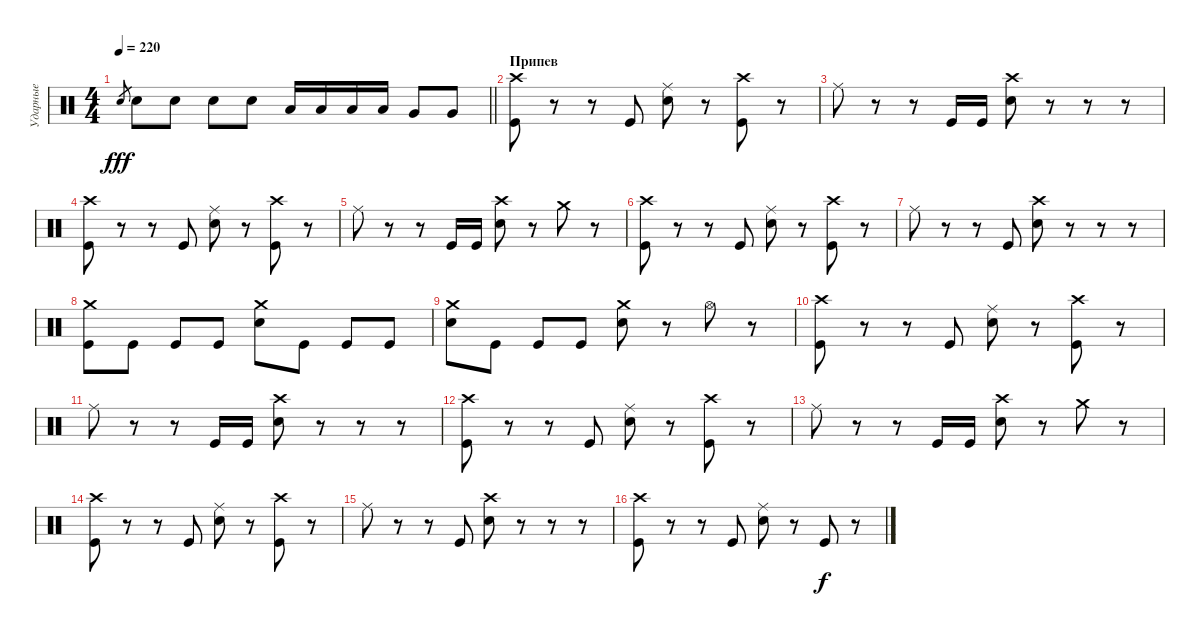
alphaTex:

\track ("Ударные" "Ударные") {instrument percussion}
\staff {score}
\articulation defaults
\ts (4 4)
\section ("" "")
\tempo 220
\clef neutral
\barLineRight lightlight
\ks c "Snare (hit) 2".8{gr dy fff} "Snare (hit) 2".8 "Snare (hit) 2".8 "Snare (hit) 2".8 "Snare (hit) 2".8 "Low Floor Tom (hit)".16 "Low Floor Tom (hit)".16 "Low Floor Tom (hit)".16 "Low Floor Tom (hit)".16 "Very Low Tom (hit)".8 "Very Low Tom (hit)".8
|
\section ("" "Припев")
("Crash high (hit)" "Kick (hit)").8 r.8 r.8 "Kick (hit)".8 ("Ride (middle)" "Snare (hit) 2").8 r.8 ("Crash high (hit)" "Kick (hit)").8 r.8 |
"Ride (middle)".8 r.8 r.8 "Kick (hit)".16 "Kick (hit)".16 ("Crash high (hit)" "Snare (hit) 2").8 r.8 r.8 r.8 |
("Crash high (hit)" "Kick (hit)").8 r.8 r.8 "Kick (hit)".8 ("Ride (middle)" "Snare (hit) 2").8 r.8 ("Crash high (hit)" "Kick (hit)").8 r.8 |
"Ride (middle)".8 r.8 r.8 "Kick (hit)".16 "Kick (hit)".16 ("Crash high (hit)" "Snare (hit) 2").8 r.8 "Crash medium (hit)".8 r.8 |
("Crash high (hit)" "Kick (hit)").8 r.8 r.8 "Kick (hit)".8 ("Ride (middle)" "Snare (hit) 2").8 r.8 ("Crash high (hit)" "Kick (hit)").8 r.8 |
"Ride (middle)".8 r.8 r.8 "Kick (hit)".8 ("Crash high (hit)" "Snare (hit) 2").8 r.8 r.8 r.8 |
("Crash medium (hit)" "Kick (hit)").8 "Kick (hit)".8 "Kick (hit)".8 "Kick (hit)".8 ("Crash medium (hit)" "Snare (hit) 2").8 "Kick (hit)".8 "Kick (hit)".8 "Kick (hit)".8 |
("Crash medium (hit)" "Snare (hit) 2").8 "Kick (hit)".8 "Kick (hit)".8 "Kick (hit)".8 ("Crash medium (hit)" "Snare (hit) 2").8 r.8 "Hi-Hat (open)".8 r.8 |
("Crash high (hit)" "Kick (hit)").8 r.8 r.8 "Kick (hit)".8 ("Ride (middle)" "Snare (hit) 2").8 r.8 ("Crash high (hit)" "Kick (hit)").8 r.8 |
"Ride (middle)".8 r.8 r.8 "Kick (hit)".16 "Kick (hit)".16 ("Crash high (hit)" "Snare (hit) 2").8 r.8 r.8 r.8 |
("Crash high (hit)" "Kick (hit)").8 r.8 r.8 "Kick (hit)".8 ("Ride (middle)" "Snare (hit) 2").8 r.8 ("Crash high (hit)" "Kick (hit)").8 r.8 |
"Ride (middle)".8 r.8 r.8 "Kick (hit)".16 "Kick (hit)".16 ("Crash high (hit)" "Snare (hit) 2").8 r.8 "Crash medium (hit)".8 r.8 |
("Crash high (hit)" "Kick (hit)").8 r.8 r.8 "Kick (hit)".8 ("Ride (middle)" "Snare (hit) 2").8 r.8 ("Crash high (hit)" "Kick (hit)").8 r.8 |
"Ride (middle)".8 r.8 r.8 "Kick (hit)".8 ("Crash high (hit)" "Snare (hit) 2").8 r.8 r.8 r.8 |
("Crash high (hit)" "Kick (hit)").8 r.8 r.8 "Kick (hit)".8 ("Ride (middle)" "Snare (hit) 2").8 r.8 "Kick (hit)".8{dy f} r.8
